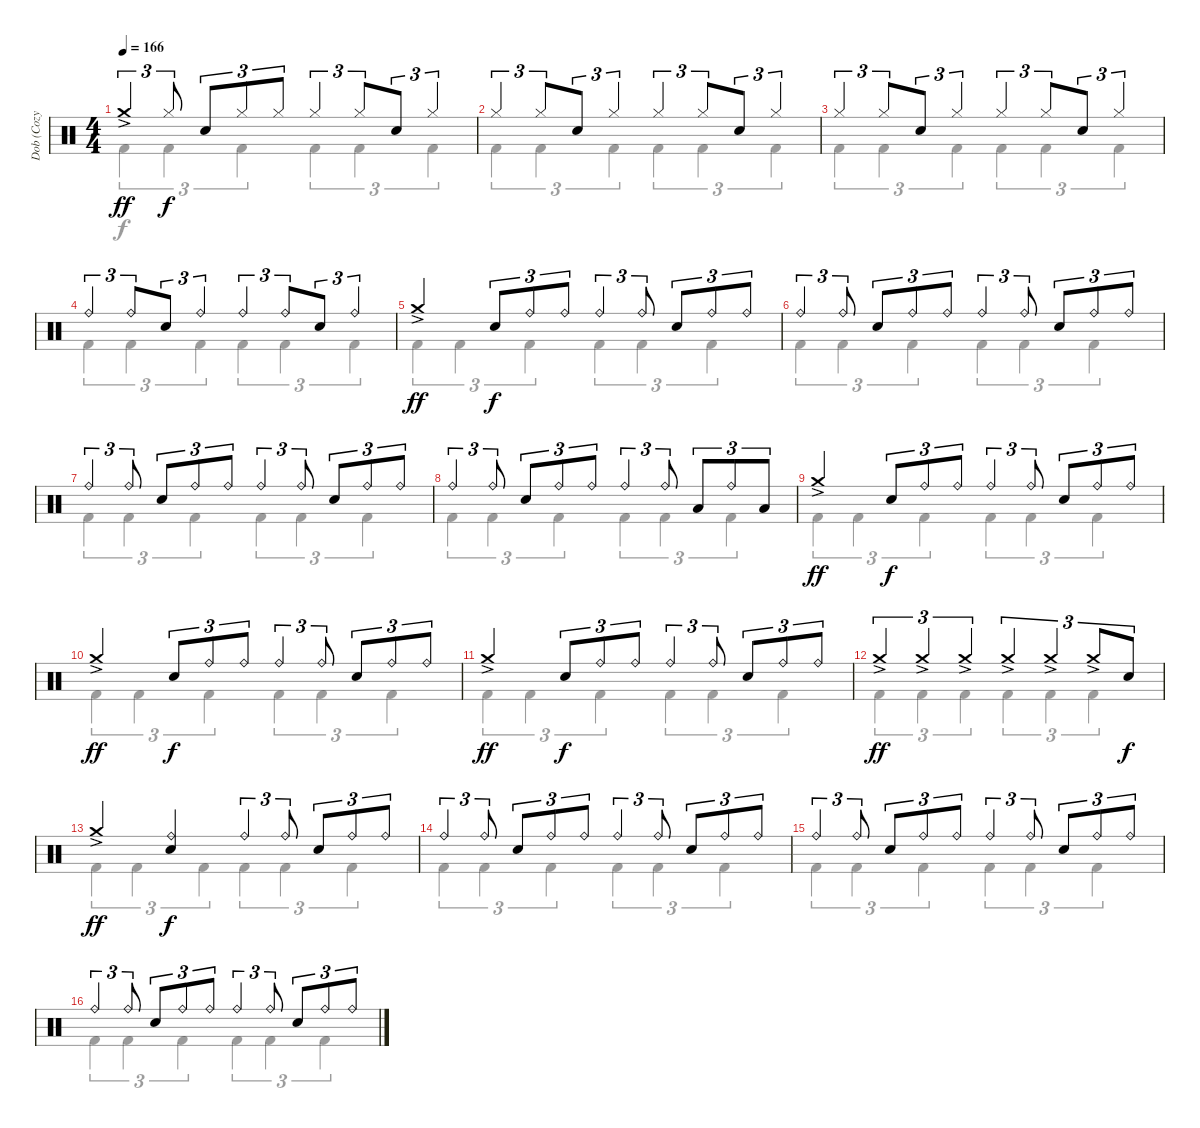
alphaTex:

\track ("Dob (Cozy Powell)" "Dob (Cozy ") {instrument percussion}
\staff {score}
\articulation defaults
\voice
\ts (4 4)
\tempo 166
\clef neutral
\ks c "Crash medium (hit)"{ac}.4{tu (3 2) dy ff} "Hi-Hat (closed)".8{tu (3 2) dy f} "Electric Snare (hit)".8{tu (3 2)} "Hi-Hat (closed)".8{tu (3 2)} "Hi-Hat (closed)".8{tu (3 2)} "Hi-Hat (closed)".4{tu (3 2)} "Hi-Hat (closed)".8{tu (3 2) beam merge} "Electric Snare (hit)".8{tu (3 2)} "Hi-Hat (closed)".4{tu (3 2)}
|
"Hi-Hat (closed)".4{tu (3 2)} "Hi-Hat (closed)".8{tu (3 2) beam merge} "Electric Snare (hit)".8{tu (3 2)} "Hi-Hat (closed)".4{tu (3 2)} "Hi-Hat (closed)".4{tu (3 2)} "Hi-Hat (closed)".8{tu (3 2) beam merge} "Electric Snare (hit)".8{tu (3 2)} "Hi-Hat (closed)".4{tu (3 2)} |
"Hi-Hat (closed)".4{tu (3 2)} "Hi-Hat (closed)".8{tu (3 2) beam merge} "Electric Snare (hit)".8{tu (3 2)} "Hi-Hat (closed)".4{tu (3 2)} "Hi-Hat (closed)".4{tu (3 2)} "Hi-Hat (closed)".8{tu (3 2) beam merge} "Electric Snare (hit)".8{tu (3 2)} "Hi-Hat (closed)".4{tu (3 2)} |
"Ride (bell)".4{tu (3 2)} "Ride (bell)".8{tu (3 2) beam merge} "Electric Snare (hit)".8{tu (3 2)} "Ride (bell)".4{tu (3 2)} "Ride (bell)".4{tu (3 2)} "Ride (bell)".8{tu (3 2) beam merge} "Electric Snare (hit)".8{tu (3 2)} "Ride (bell)".4{tu (3 2)} |
"Crash medium (hit)"{ac}.4{dy ff} "Electric Snare (hit)".8{tu (3 2) dy f} "Ride (bell)".8{tu (3 2)} "Ride (bell)".8{tu (3 2)} "Ride (bell)".4{tu (3 2)} "Ride (bell)".8{tu (3 2)} "Electric Snare (hit)".8{tu (3 2)} "Ride (bell)".8{tu (3 2)} "Ride (bell)".8{tu (3 2)} |
"Ride (bell)".4{tu (3 2)} "Ride (bell)".8{tu (3 2)} "Electric Snare (hit)".8{tu (3 2)} "Ride (bell)".8{tu (3 2)} "Ride (bell)".8{tu (3 2)} "Ride (bell)".4{tu (3 2)} "Ride (bell)".8{tu (3 2)} "Electric Snare (hit)".8{tu (3 2)} "Ride (bell)".8{tu (3 2)} "Ride (bell)".8{tu (3 2)} |
"Ride (bell)".4{tu (3 2)} "Ride (bell)".8{tu (3 2)} "Electric Snare (hit)".8{tu (3 2)} "Ride (bell)".8{tu (3 2)} "Ride (bell)".8{tu (3 2)} "Ride (bell)".4{tu (3 2)} "Ride (bell)".8{tu (3 2)} "Electric Snare (hit)".8{tu (3 2)} "Ride (bell)".8{tu (3 2)} "Ride (bell)".8{tu (3 2)} |
"Ride (bell)".4{tu (3 2)} "Ride (bell)".8{tu (3 2)} "Electric Snare (hit)".8{tu (3 2)} "Ride (bell)".8{tu (3 2)} "Ride (bell)".8{tu (3 2)} "Ride (bell)".4{tu (3 2)} "Ride (bell)".8{tu (3 2)} "Low Tom (hit)".8{tu (3 2)} "Ride (bell)".8{tu (3 2)} "Low Tom (hit)".8{tu (3 2)} |
"Crash medium (hit)"{ac}.4{dy ff} "Electric Snare (hit)".8{tu (3 2) dy f} "Ride (bell)".8{tu (3 2)} "Ride (bell)".8{tu (3 2)} "Ride (bell)".4{tu (3 2)} "Ride (bell)".8{tu (3 2)} "Electric Snare (hit)".8{tu (3 2)} "Ride (bell)".8{tu (3 2)} "Ride (bell)".8{tu (3 2)} |
"Crash medium (hit)"{ac}.4{dy ff} "Electric Snare (hit)".8{tu (3 2) dy f} "Ride (bell)".8{tu (3 2)} "Ride (bell)".8{tu (3 2)} "Ride (bell)".4{tu (3 2)} "Ride (bell)".8{tu (3 2)} "Electric Snare (hit)".8{tu (3 2)} "Ride (bell)".8{tu (3 2)} "Ride (bell)".8{tu (3 2)} |
"Crash medium (hit)"{ac}.4{dy ff} "Electric Snare (hit)".8{tu (3 2) dy f} "Ride (bell)".8{tu (3 2)} "Ride (bell)".8{tu (3 2)} "Ride (bell)".4{tu (3 2)} "Ride (bell)".8{tu (3 2)} "Electric Snare (hit)".8{tu (3 2)} "Ride (bell)".8{tu (3 2)} "Ride (bell)".8{tu (3 2)} |
"Crash medium (hit)"{ac}.4{tu (3 2) dy ff} "Crash medium (hit)"{ac}.4{tu (3 2)} "Crash medium (hit)"{ac}.4{tu (3 2)} "Crash medium (hit)"{ac}.4{tu (3 2)} "Crash medium (hit)"{ac}.4{tu (3 2)} "Crash medium (hit)"{ac}.8{tu (3 2)} "Electric Snare (hit)".8{tu (3 2) dy f} |
"Crash medium (hit)"{ac}.4{dy ff} ("Ride (bell)" "Electric Snare (hit)").4{dy f} "Ride (bell)".4{tu (3 2)} "Ride (bell)".8{tu (3 2)} "Electric Snare (hit)".8{tu (3 2)} "Ride (bell)".8{tu (3 2)} "Ride (bell)".8{tu (3 2)} |
"Ride (bell)".4{tu (3 2)} "Ride (bell)".8{tu (3 2)} "Electric Snare (hit)".8{tu (3 2)} "Ride (bell)".8{tu (3 2)} "Ride (bell)".8{tu (3 2)} "Ride (bell)".4{tu (3 2)} "Ride (bell)".8{tu (3 2)} "Electric Snare (hit)".8{tu (3 2)} "Ride (bell)".8{tu (3 2)} "Ride (bell)".8{tu (3 2)} |
"Ride (bell)".4{tu (3 2)} "Ride (bell)".8{tu (3 2)} "Electric Snare (hit)".8{tu (3 2)} "Ride (bell)".8{tu (3 2)} "Ride (bell)".8{tu (3 2)} "Ride (bell)".4{tu (3 2)} "Ride (bell)".8{tu (3 2)} "Electric Snare (hit)".8{tu (3 2)} "Ride (bell)".8{tu (3 2)} "Ride (bell)".8{tu (3 2)} |
"Ride (bell)".4{tu (3 2)} "Ride (bell)".8{tu (3 2)} "Electric Snare (hit)".8{tu (3 2)} "Ride (bell)".8{tu (3 2)} "Ride (bell)".8{tu (3 2)} "Ride (bell)".4{tu (3 2)} "Ride (bell)".8{tu (3 2)} "Electric Snare (hit)".8{tu (3 2)} "Ride (bell)".8{tu (3 2)} "Ride (bell)".8{tu (3 2)}
\voice
\clef neutral
\ottava regular
\simile none
\ks c "Kick (hit) 2".4{tu (3 2) dy f} "Kick (hit) 2".4{tu (3 2)} "Kick (hit) 2".4{tu (3 2)} "Kick (hit) 2".4{tu (3 2)} "Kick (hit) 2".4{tu (3 2)} "Kick (hit) 2".4{tu (3 2)}
|
"Kick (hit) 2".4{tu (3 2)} "Kick (hit) 2".4{tu (3 2)} "Kick (hit) 2".4{tu (3 2)} "Kick (hit) 2".4{tu (3 2)} "Kick (hit) 2".4{tu (3 2)} "Kick (hit) 2".4{tu (3 2)} |
"Kick (hit) 2".4{tu (3 2)} "Kick (hit) 2".4{tu (3 2)} "Kick (hit) 2".4{tu (3 2)} "Kick (hit) 2".4{tu (3 2)} "Kick (hit) 2".4{tu (3 2)} "Kick (hit) 2".4{tu (3 2)} |
"Kick (hit) 2".4{tu (3 2)} "Kick (hit) 2".4{tu (3 2)} "Kick (hit) 2".4{tu (3 2)} "Kick (hit) 2".4{tu (3 2)} "Kick (hit) 2".4{tu (3 2)} "Kick (hit) 2".4{tu (3 2)} |
"Kick (hit) 2".4{tu (3 2)} "Kick (hit) 2".4{tu (3 2)} "Kick (hit) 2".4{tu (3 2)} "Kick (hit) 2".4{tu (3 2)} "Kick (hit) 2".4{tu (3 2)} "Kick (hit) 2".4{tu (3 2)} |
"Kick (hit) 2".4{tu (3 2)} "Kick (hit) 2".4{tu (3 2)} "Kick (hit) 2".4{tu (3 2)} "Kick (hit) 2".4{tu (3 2)} "Kick (hit) 2".4{tu (3 2)} "Kick (hit) 2".4{tu (3 2)} |
"Kick (hit) 2".4{tu (3 2)} "Kick (hit) 2".4{tu (3 2)} "Kick (hit) 2".4{tu (3 2)} "Kick (hit) 2".4{tu (3 2)} "Kick (hit) 2".4{tu (3 2)} "Kick (hit) 2".4{tu (3 2)} |
"Kick (hit) 2".4{tu (3 2)} "Kick (hit) 2".4{tu (3 2)} "Kick (hit) 2".4{tu (3 2)} "Kick (hit) 2".4{tu (3 2)} "Kick (hit) 2".4{tu (3 2)} "Kick (hit) 2".4{tu (3 2)} |
"Kick (hit) 2".4{tu (3 2)} "Kick (hit) 2".4{tu (3 2)} "Kick (hit) 2".4{tu (3 2)} "Kick (hit) 2".4{tu (3 2)} "Kick (hit) 2".4{tu (3 2)} "Kick (hit) 2".4{tu (3 2)} |
"Kick (hit) 2".4{tu (3 2)} "Kick (hit) 2".4{tu (3 2)} "Kick (hit) 2".4{tu (3 2)} "Kick (hit) 2".4{tu (3 2)} "Kick (hit) 2".4{tu (3 2)} "Kick (hit) 2".4{tu (3 2)} |
"Kick (hit) 2".4{tu (3 2)} "Kick (hit) 2".4{tu (3 2)} "Kick (hit) 2".4{tu (3 2)} "Kick (hit) 2".4{tu (3 2)} "Kick (hit) 2".4{tu (3 2)} "Kick (hit) 2".4{tu (3 2)} |
"Kick (hit) 2".4{tu (3 2)} "Kick (hit) 2".4{tu (3 2)} "Kick (hit) 2".4{tu (3 2)} "Kick (hit) 2".4{tu (3 2)} "Kick (hit) 2".4{tu (3 2)} "Kick (hit) 2".4{tu (3 2)} |
"Kick (hit) 2".4{tu (3 2)} "Kick (hit) 2".4{tu (3 2)} "Kick (hit) 2".4{tu (3 2)} "Kick (hit) 2".4{tu (3 2)} "Kick (hit) 2".4{tu (3 2)} "Kick (hit) 2".4{tu (3 2)} |
"Kick (hit) 2".4{tu (3 2)} "Kick (hit) 2".4{tu (3 2)} "Kick (hit) 2".4{tu (3 2)} "Kick (hit) 2".4{tu (3 2)} "Kick (hit) 2".4{tu (3 2)} "Kick (hit) 2".4{tu (3 2)} |
"Kick (hit) 2".4{tu (3 2)} "Kick (hit) 2".4{tu (3 2)} "Kick (hit) 2".4{tu (3 2)} "Kick (hit) 2".4{tu (3 2)} "Kick (hit) 2".4{tu (3 2)} "Kick (hit) 2".4{tu (3 2)} |
"Kick (hit) 2".4{tu (3 2)} "Kick (hit) 2".4{tu (3 2)} "Kick (hit) 2".4{tu (3 2)} "Kick (hit) 2".4{tu (3 2)} "Kick (hit) 2".4{tu (3 2)} "Kick (hit) 2".4{tu (3 2)}
